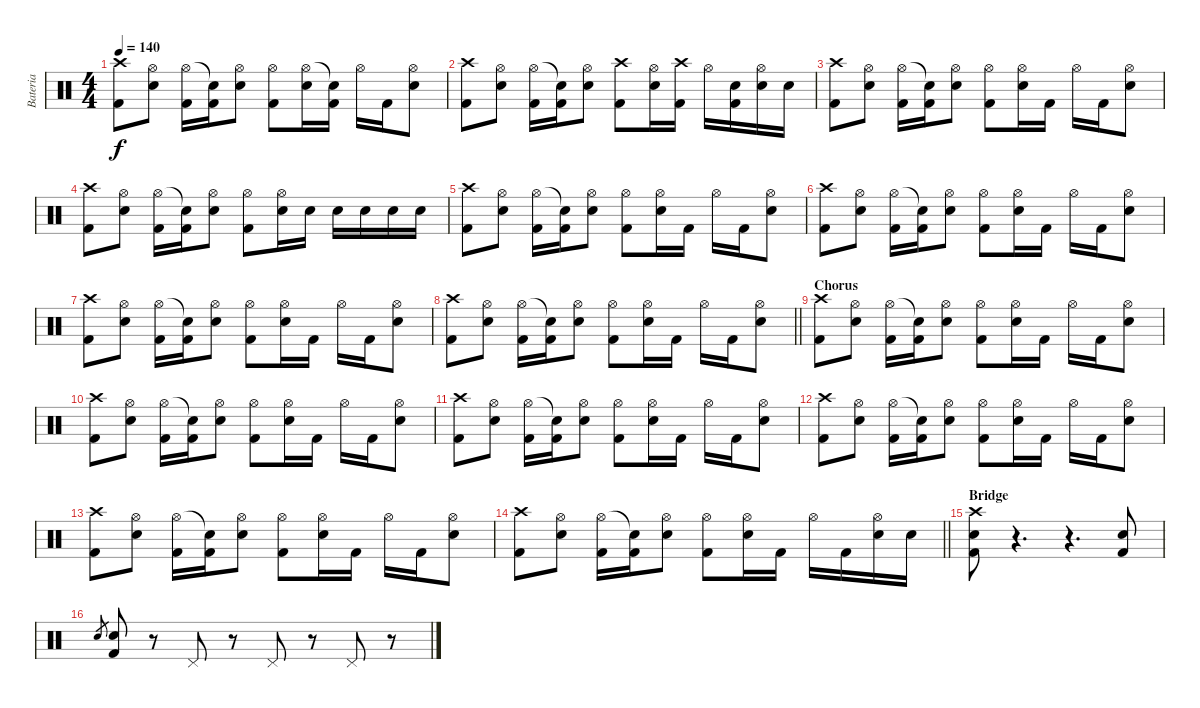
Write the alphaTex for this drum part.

\track ("Bateria" "Bateria") {instrument percussion}
\staff {score}
\articulation defaults
\ts (4 4)
\tempo 140
\clef neutral
\ks c
("Crash high (hit)" "Kick (hit) 2").8{dy f} ("Hi-Hat (open)" "Electric Snare (hit)").8 ("Hi-Hat (open)" "Kick (hit) 2").16 ("Snare (hit)"{t} "Kick (hit) 2").16 ("Hi-Hat (open)" "Electric Snare (hit)").8 ("Hi-Hat (open)" "Kick (hit) 2").8 ("Hi-Hat (open)" "Electric Snare (hit)").16 ("Snare (hit)"{t} "Kick (hit) 2").16 "Hi-Hat (open)".16 "Kick (hit) 2".16 ("Hi-Hat (open)" "Electric Snare (hit)").8 |
("Crash high (hit)" "Kick (hit) 2").8 ("Hi-Hat (open)" "Electric Snare (hit)").8 ("Hi-Hat (open)" "Kick (hit) 2").16 ("Snare (hit)"{t} "Kick (hit) 2").16 ("Hi-Hat (open)" "Electric Snare (hit)").8 ("Crash high (hit)" "Kick (hit) 2").8 ("Hi-Hat (open)" "Electric Snare (hit)").16 ("Crash high (hit)" "Kick (hit) 2").16 "Hi-Hat (open)".16 ("Electric Snare (hit)" "Kick (hit) 2").16 ("Hi-Hat (open)" "Electric Snare (hit)").16 "Electric Snare (hit)".16 |
("Crash high (hit)" "Kick (hit) 2").8 ("Hi-Hat (open)" "Electric Snare (hit)").8 ("Hi-Hat (open)" "Kick (hit) 2").16 ("Snare (hit)"{t} "Kick (hit) 2").16 ("Hi-Hat (open)" "Electric Snare (hit)").8 ("Hi-Hat (open)" "Kick (hit) 2").8 ("Hi-Hat (open)" "Electric Snare (hit)").16 "Kick (hit) 2".16 "Hi-Hat (open)".16 "Kick (hit) 2".16 ("Hi-Hat (open)" "Electric Snare (hit)").8 |
("Crash high (hit)" "Kick (hit) 2").8 ("Hi-Hat (open)" "Electric Snare (hit)").8 ("Hi-Hat (open)" "Kick (hit) 2").16 ("Snare (hit)"{t} "Kick (hit) 2").16 ("Hi-Hat (open)" "Electric Snare (hit)").8 ("Hi-Hat (open)" "Kick (hit) 2").8 ("Hi-Hat (open)" "Electric Snare (hit)").16 "Electric Snare (hit)".16 "Electric Snare (hit)".16 "Electric Snare (hit)".16 "Electric Snare (hit)".16 "Electric Snare (hit)".16 |
("Crash high (hit)" "Kick (hit) 2").8 ("Hi-Hat (open)" "Electric Snare (hit)").8 ("Hi-Hat (open)" "Kick (hit) 2").16 ("Snare (hit)"{t} "Kick (hit) 2").16 ("Hi-Hat (open)" "Electric Snare (hit)").8 ("Hi-Hat (open)" "Kick (hit) 2").8 ("Hi-Hat (open)" "Electric Snare (hit)").16 "Kick (hit) 2".16 "Hi-Hat (open)".16 "Kick (hit) 2".16 ("Hi-Hat (open)" "Electric Snare (hit)").8 |
("Crash high (hit)" "Kick (hit) 2").8 ("Hi-Hat (open)" "Electric Snare (hit)").8 ("Hi-Hat (open)" "Kick (hit) 2").16 ("Snare (hit)"{t} "Kick (hit) 2").16 ("Hi-Hat (open)" "Electric Snare (hit)").8 ("Hi-Hat (open)" "Kick (hit) 2").8 ("Hi-Hat (open)" "Electric Snare (hit)").16 "Kick (hit) 2".16 "Hi-Hat (open)".16 "Kick (hit) 2".16 ("Hi-Hat (open)" "Electric Snare (hit)").8 |
("Crash high (hit)" "Kick (hit) 2").8 ("Hi-Hat (open)" "Electric Snare (hit)").8 ("Hi-Hat (open)" "Kick (hit) 2").16 ("Snare (hit)"{t} "Kick (hit) 2").16 ("Hi-Hat (open)" "Electric Snare (hit)").8 ("Hi-Hat (open)" "Kick (hit) 2").8 ("Hi-Hat (open)" "Electric Snare (hit)").16 "Kick (hit) 2".16 "Hi-Hat (open)".16 "Kick (hit) 2".16 ("Hi-Hat (open)" "Electric Snare (hit)").8 |
\barLineRight lightlight
("Crash high (hit)" "Kick (hit) 2").8 ("Hi-Hat (open)" "Electric Snare (hit)").8 ("Hi-Hat (open)" "Kick (hit) 2").16 ("Snare (hit)"{t} "Kick (hit) 2").16 ("Hi-Hat (open)" "Electric Snare (hit)").8 ("Hi-Hat (open)" "Kick (hit) 2").8 ("Hi-Hat (open)" "Electric Snare (hit)").16 "Kick (hit) 2".16 "Hi-Hat (open)".16 "Kick (hit) 2".16 ("Hi-Hat (open)" "Electric Snare (hit)").8 |
\section ("" "Chorus")
("Crash high (hit)" "Kick (hit) 2").8 ("Hi-Hat (open)" "Electric Snare (hit)").8 ("Hi-Hat (open)" "Kick (hit) 2").16 ("Snare (hit)"{t} "Kick (hit) 2").16 ("Hi-Hat (open)" "Electric Snare (hit)").8 ("Hi-Hat (open)" "Kick (hit) 2").8 ("Hi-Hat (open)" "Electric Snare (hit)").16 "Kick (hit) 2".16 "Hi-Hat (open)".16 "Kick (hit) 2".16 ("Hi-Hat (open)" "Electric Snare (hit)").8 |
("Crash high (hit)" "Kick (hit) 2").8 ("Hi-Hat (open)" "Electric Snare (hit)").8 ("Hi-Hat (open)" "Kick (hit) 2").16 ("Snare (hit)"{t} "Kick (hit) 2").16 ("Hi-Hat (open)" "Electric Snare (hit)").8 ("Hi-Hat (open)" "Kick (hit) 2").8 ("Hi-Hat (open)" "Electric Snare (hit)").16 "Kick (hit) 2".16 "Hi-Hat (open)".16 "Kick (hit) 2".16 ("Hi-Hat (open)" "Electric Snare (hit)").8 |
("Crash high (hit)" "Kick (hit) 2").8 ("Hi-Hat (open)" "Electric Snare (hit)").8 ("Hi-Hat (open)" "Kick (hit) 2").16 ("Snare (hit)"{t} "Kick (hit) 2").16 ("Hi-Hat (open)" "Electric Snare (hit)").8 ("Hi-Hat (open)" "Kick (hit) 2").8 ("Hi-Hat (open)" "Electric Snare (hit)").16 "Kick (hit) 2".16 "Hi-Hat (open)".16 "Kick (hit) 2".16 ("Hi-Hat (open)" "Electric Snare (hit)").8 |
("Crash high (hit)" "Kick (hit) 2").8 ("Hi-Hat (open)" "Electric Snare (hit)").8 ("Hi-Hat (open)" "Kick (hit) 2").16 ("Snare (hit)"{t} "Kick (hit) 2").16 ("Hi-Hat (open)" "Electric Snare (hit)").8 ("Hi-Hat (open)" "Kick (hit) 2").8 ("Hi-Hat (open)" "Electric Snare (hit)").16 "Kick (hit) 2".16 "Hi-Hat (open)".16 "Kick (hit) 2".16 ("Hi-Hat (open)" "Electric Snare (hit)").8 |
("Crash high (hit)" "Kick (hit) 2").8 ("Hi-Hat (open)" "Electric Snare (hit)").8 ("Hi-Hat (open)" "Kick (hit) 2").16 ("Snare (hit)"{t} "Kick (hit) 2").16 ("Hi-Hat (open)" "Electric Snare (hit)").8 ("Hi-Hat (open)" "Kick (hit) 2").8 ("Hi-Hat (open)" "Electric Snare (hit)").16 "Kick (hit) 2".16 "Hi-Hat (open)".16 "Kick (hit) 2".16 ("Hi-Hat (open)" "Electric Snare (hit)").8 |
\barLineRight lightlight
("Crash high (hit)" "Kick (hit) 2").8 ("Hi-Hat (open)" "Snare (hit) 2").8 ("Hi-Hat (open)" "Kick (hit) 2").16 ("Snare (hit)"{t} "Kick (hit) 2").16 ("Hi-Hat (open)" "Snare (hit) 2").8 ("Hi-Hat (open)" "Kick (hit) 2").8 ("Hi-Hat (open)" "Electric Snare (hit)").16 "Kick (hit) 2".16 "Hi-Hat (open)".16 "Kick (hit) 2".16 ("Hi-Hat (open)" "Electric Snare (hit)").16 "Electric Snare (hit)".16 |
\section ("" "Bridge")
("Crash high (hit)" "Electric Snare (hit)" "Kick (hit) 2").8 r.4{d} r.4{d} ("Electric Snare (hit)" "Kick (hit) 2").8 |
"Electric Snare (hit)".8{gr} ("Electric Snare (hit)" "Kick (hit) 2").8 r.8 "Pedal Hi-Hat (hit)".8 r.8 "Pedal Hi-Hat (hit)".8 r.8 "Pedal Hi-Hat (hit)".8 r.8
